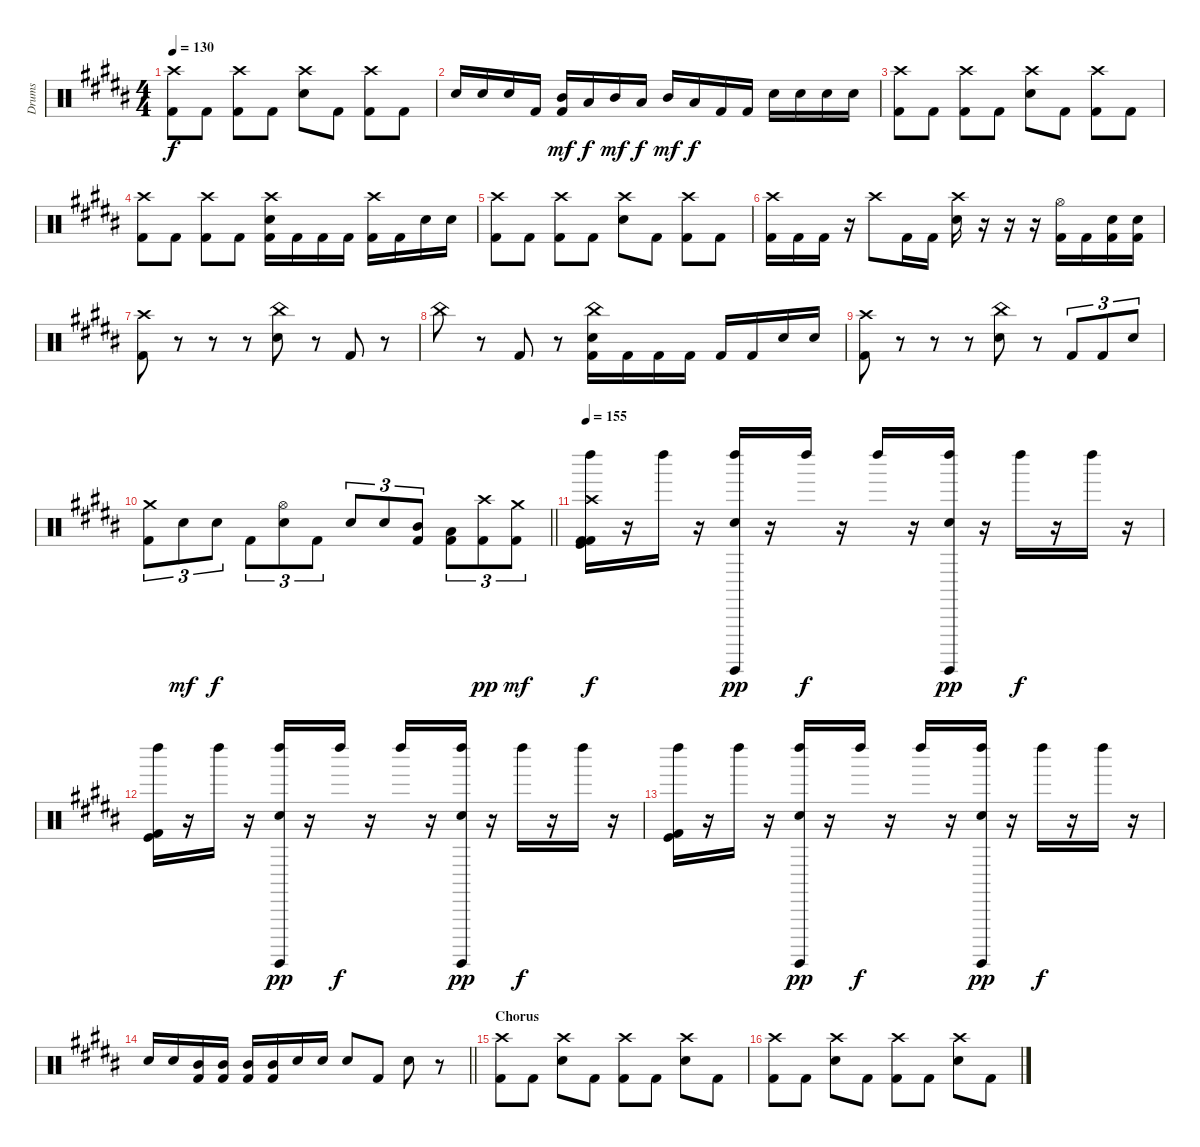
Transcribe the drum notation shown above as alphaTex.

\track ("Drums" "Drums") {instrument percussion}
\staff {score}
\articulation defaults
\ts (4 4)
\tempo 130
\clef neutral
\ks g#minor
("Crash high (hit)" "Kick (hit) 2").8{dy f} "Kick (hit) 2".8 ("Crash high (hit)" "Kick (hit) 2").8 "Kick (hit) 2".8 ("Crash high (hit)" "Electric Snare (hit)").8 "Kick (hit) 2".8 ("Crash high (hit)" "Kick (hit) 2").8 "Kick (hit) 2".8 |
"Electric Snare (hit)".16 "Electric Snare (hit)".16 "Electric Snare (hit)".16 "Kick (hit) 2".16 ("Mid Tom (hit)" "Kick (hit) 2").16{dy mf} "Low Floor Tom (hit)".16{dy f} "Mid Tom (hit)".16{dy mf} "Low Floor Tom (hit)".16{dy f} "Mid Tom (hit)".16{dy mf} "Low Floor Tom (hit)".16{dy f} "Kick (hit) 2".16 "Kick (hit) 2".16 "Electric Snare (hit)".16 "Electric Snare (hit)".16 "Electric Snare (hit)".16 "Electric Snare (hit)".16 |
("Crash high (hit)" "Kick (hit) 2").8 "Kick (hit) 2".8 ("Crash high (hit)" "Kick (hit) 2").8 "Kick (hit) 2".8 ("Crash high (hit)" "Electric Snare (hit)").8 "Kick (hit) 2".8 ("Crash high (hit)" "Kick (hit) 2").8 "Kick (hit) 2".8 |
("Crash high (hit)" "Kick (hit) 2").8 "Kick (hit) 2".8 ("Crash high (hit)" "Kick (hit) 2").8 "Kick (hit) 2".8 ("Crash high (hit)" "Electric Snare (hit)" "Kick (hit) 2").16 "Kick (hit) 2".16 "Kick (hit) 2".16 "Kick (hit) 2".16 ("Crash high (hit)" "Kick (hit) 2").16 "Kick (hit) 2".16 "Electric Snare (hit)".16 "Electric Snare (hit)".16 |
("Crash high (hit)" "Kick (hit) 2").8 "Kick (hit) 2".8 ("Crash high (hit)" "Kick (hit) 2").8 "Kick (hit) 2".8 ("Crash high (hit)" "Electric Snare (hit)").8 "Kick (hit) 2".8 ("Crash high (hit)" "Kick (hit) 2").8 "Kick (hit) 2".8 |
("Crash high (hit)" "Kick (hit) 2").16 "Kick (hit) 2".16 "Kick (hit) 2".16 r.16 "Crash high (hit)".8 "Kick (hit) 2".16 "Kick (hit) 2".16 ("Crash high (hit)" "Electric Snare (hit)").16 r.16 r.16 r.16 ("Hi-Hat (open)" "Kick (hit) 2").16 "Kick (hit) 2".16 ("Electric Snare (hit)" "Kick (hit) 2").16 ("Electric Snare (hit)" "Kick (hit) 2").16 |
("Crash high (hit)" "Kick (hit) 2").8 r.8 r.8 r.8 ("China (hit)" "Electric Snare (hit)").8 r.8 "Kick (hit) 2".8 r.8 |
"China (hit)".8 r.8 "Kick (hit) 2".8 r.8 ("China (hit)" "Electric Snare (hit)" "Kick (hit) 2").16 "Kick (hit) 2".16 "Kick (hit) 2".16 "Kick (hit) 2".16 "Kick (hit) 2".16 "Kick (hit) 2".16 "Electric Snare (hit)".16 "Electric Snare (hit)".16 |
("Crash high (hit)" "Kick (hit) 2").8 r.8 r.8 r.8 ("China (hit)" "Electric Snare (hit)").8 r.8 "Kick (hit) 2".8{tu (3 2)} "Kick (hit) 2".8{tu (3 2)} "Electric Snare (hit)".8{tu (3 2)} |
\barLineRight lightlight
("Crash medium (hit)" "Kick (hit) 2").8{tu (3 2)} "Electric Snare (hit)".8{tu (3 2) dy mf} "Electric Snare (hit)".8{tu (3 2) dy f} "Kick (hit) 2".8{tu (3 2)} ("Hi-Hat (open)" "Electric Snare (hit)").8{tu (3 2)} "Kick (hit) 2".8{tu (3 2)} "Electric Snare (hit)".8{tu (3 2)} "Electric Snare (hit)".8{tu (3 2)} ("Mid Tom (hit)" "Kick (hit) 2").8{tu (3 2)} ("Low Floor Tom (hit)" "Kick (hit) 2").8{tu (3 2)} ("Crash high (hit)" "Kick (hit) 2").8{tu (3 2) dy pp} ("Crash medium (hit)" "Kick (hit) 2").8{tu (3 2) dy mf} |
\tempo 155
("Crash high (hit)" "Kick (hit) 2" "Left Maraca (hit)" "Kick (hit)" "Kick (hit) 2").16{dy f} r.16 "Left Maraca (hit)".16 r.16 ("Snare (hit) 2" "Surdo (hit)" "Left Maraca (hit)").16{dy pp} r.16 "Left Maraca (hit)".16{dy f} r.16 "Left Maraca (hit)".16 r.16 ("Snare (hit) 2" "Surdo (hit)" "Left Maraca (hit)").16{dy pp} r.16 "Left Maraca (hit)".16{dy f} r.16 "Left Maraca (hit)".16 r.16 |
("Left Maraca (hit)" "Kick (hit)" "Kick (hit) 2").16 r.16 "Left Maraca (hit)".16 r.16 ("Snare (hit) 2" "Surdo (hit)" "Left Maraca (hit)").16{dy pp} r.16 "Left Maraca (hit)".16{dy f} r.16 "Left Maraca (hit)".16 r.16 ("Snare (hit) 2" "Surdo (hit)" "Left Maraca (hit)").16{dy pp} r.16 "Left Maraca (hit)".16{dy f} r.16 "Left Maraca (hit)".16 r.16 |
("Left Maraca (hit)" "Kick (hit)" "Kick (hit) 2").16 r.16 "Left Maraca (hit)".16 r.16 ("Snare (hit) 2" "Surdo (hit)" "Left Maraca (hit)").16{dy pp} r.16 "Left Maraca (hit)".16{dy f} r.16 "Left Maraca (hit)".16 r.16 ("Snare (hit) 2" "Surdo (hit)" "Left Maraca (hit)").16{dy pp} r.16 "Left Maraca (hit)".16{dy f} r.16 "Left Maraca (hit)".16 r.16 |
\barLineRight lightlight "Electric Snare (hit)".16 "Electric Snare (hit)".16
("Mid Tom (hit)" "Kick (hit) 2").16 ("Mid Tom (hit)" "Kick (hit) 2").16 ("Mid Tom (hit)" "Kick (hit) 2").16 ("Mid Tom (hit)" "Kick (hit) 2").16 "Electric Snare (hit)".16 "Electric Snare (hit)".16 "Electric Snare (hit)".8 "Kick (hit) 2".8 "Electric Snare (hit)".8 r.8 |
\section ("" "Chorus")
("Crash high (hit)" "Kick (hit) 2").8 "Kick (hit) 2".8 ("Crash high (hit)" "Electric Snare (hit)").8 "Kick (hit) 2".8 ("Crash high (hit)" "Kick (hit) 2").8 "Kick (hit) 2".8 ("Crash high (hit)" "Electric Snare (hit)").8 "Kick (hit) 2".8 |
("Crash high (hit)" "Kick (hit) 2").8 "Kick (hit) 2".8 ("Crash high (hit)" "Electric Snare (hit)").8 "Kick (hit) 2".8 ("Crash high (hit)" "Kick (hit) 2").8 "Kick (hit) 2".8 ("Crash high (hit)" "Electric Snare (hit)").8 "Kick (hit) 2".8
